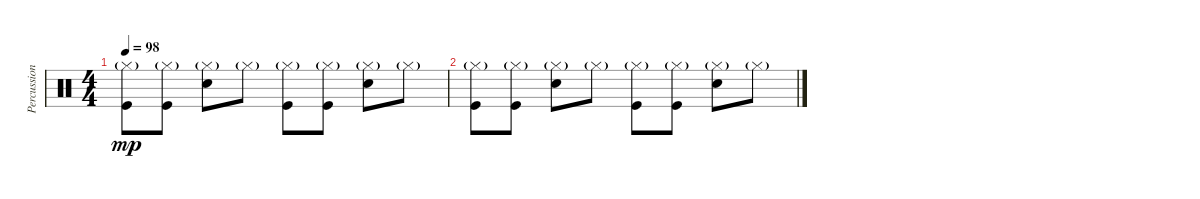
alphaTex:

\track ("Percussions" "Percussion") {instrument percussion}
\staff {score}
\articulation defaults
\ts (4 4)
\tempo 98
\clef neutral
\ks c
("Hi-Hat (closed)"{g} "Kick (hit)").8{dy mp} ("Hi-Hat (closed)"{g} "Kick (hit)").8 ("Hi-Hat (closed)"{g} "Snare (hit) 2").8 "Hi-Hat (closed)"{g}.8 ("Hi-Hat (closed)"{g} "Kick (hit)").8 ("Hi-Hat (closed)"{g} "Kick (hit)").8 ("Hi-Hat (closed)"{g} "Snare (hit) 2").8 "Hi-Hat (closed)"{g}.8 |
("Hi-Hat (closed)"{g} "Kick (hit)").8 ("Hi-Hat (closed)"{g} "Kick (hit)").8 ("Hi-Hat (closed)"{g} "Snare (hit) 2").8 "Hi-Hat (closed)"{g}.8 ("Hi-Hat (closed)"{g} "Kick (hit)").8 ("Hi-Hat (closed)"{g} "Kick (hit)").8 ("Hi-Hat (closed)"{g} "Snare (hit) 2").8 "Hi-Hat (closed)"{g}.8
